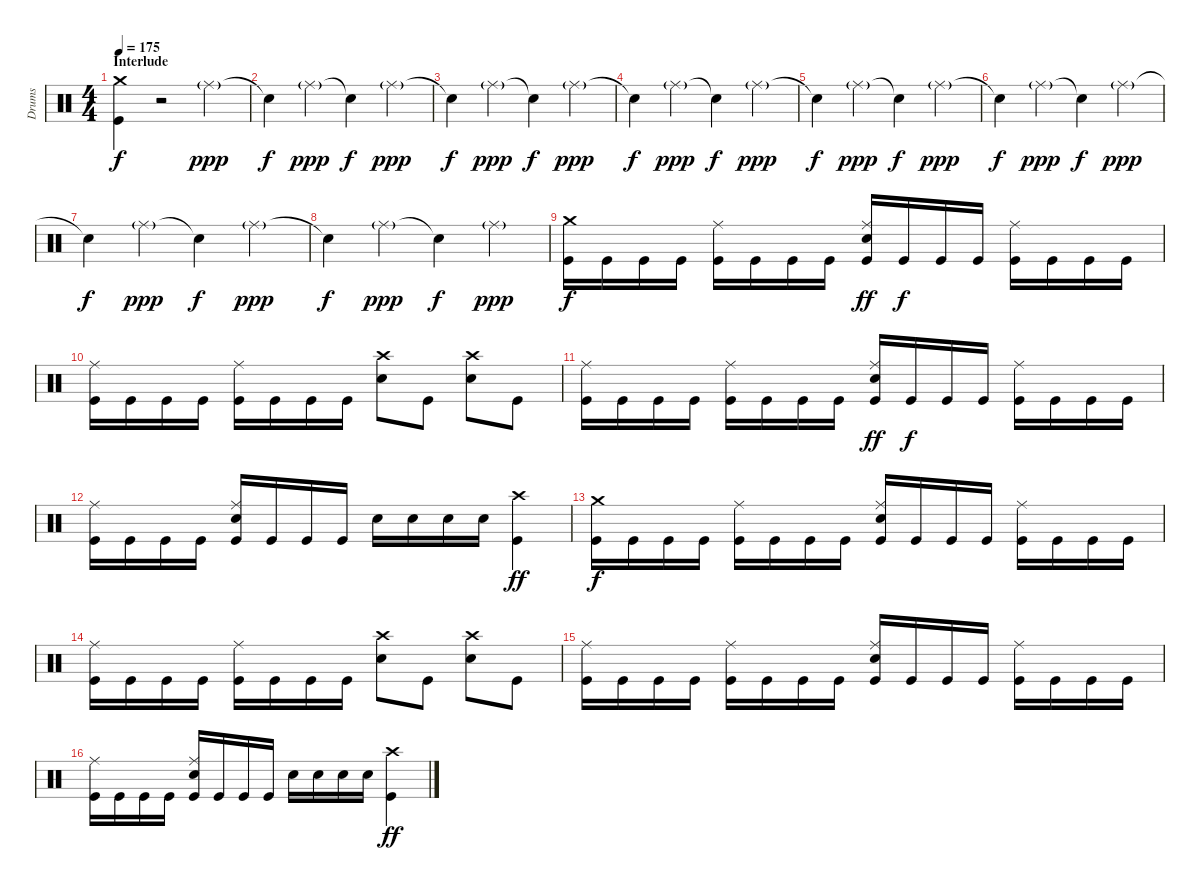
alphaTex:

\track ("Drums" "Drums") {instrument percussion}
\staff {score}
\articulation defaults
\ts (4 4)
\section ("" "Interlude")
\tempo 175
\clef neutral
\ks c
("Crash medium (hit)" "Kick (hit)").4{dy f} r.2 "Ride (middle)"{g}.4{dy ppp} |
"Snare (hit)"{t}.4{dy f} "Ride (middle)"{g}.4{dy ppp} "Snare (hit)"{t}.4{dy f} "Ride (middle)"{g}.4{dy ppp} |
"Snare (hit)"{t}.4{dy f} "Ride (middle)"{g}.4{dy ppp} "Snare (hit)"{t}.4{dy f} "Ride (middle)"{g}.4{dy ppp} |
"Snare (hit)"{t}.4{dy f} "Ride (middle)"{g}.4{dy ppp} "Snare (hit)"{t}.4{dy f} "Ride (middle)"{g}.4{dy ppp} |
"Snare (hit)"{t}.4{dy f} "Ride (middle)"{g}.4{dy ppp} "Snare (hit)"{t}.4{dy f} "Ride (middle)"{g}.4{dy ppp} |
"Snare (hit)"{t}.4{dy f} "Ride (middle)"{g}.4{dy ppp} "Snare (hit)"{t}.4{dy f} "Ride (middle)"{g}.4{dy ppp} |
"Snare (hit)"{t}.4{dy f} "Ride (middle)"{g}.4{dy ppp} "Snare (hit)"{t}.4{dy f} "Ride (middle)"{g}.4{dy ppp} |
"Snare (hit)"{t}.4{dy f} "Ride (middle)"{g}.4{dy ppp} "Snare (hit)"{t}.4{dy f} "Ride (middle)"{g}.4{dy ppp} |
("Crash medium (hit)" "Kick (hit)").16{dy f} "Kick (hit)".16 "Kick (hit)".16 "Kick (hit)".16 ("Ride (middle)" "Kick (hit)").16 "Kick (hit)".16 "Kick (hit)".16 "Kick (hit)".16 ("Ride (middle)" "Snare (hit) 2" "Kick (hit)").16{dy ff} "Kick (hit)".16{dy f} "Kick (hit)".16 "Kick (hit)".16 ("Ride (middle)" "Kick (hit)").16 "Kick (hit)".16 "Kick (hit)".16 "Kick (hit)".16 |
("Ride (middle)" "Kick (hit)").16 "Kick (hit)".16 "Kick (hit)".16 "Kick (hit)".16 ("Ride (middle)" "Kick (hit)").16 "Kick (hit)".16 "Kick (hit)".16 "Kick (hit)".16 ("Crash high (hit)" "Snare (hit) 2").8 "Kick (hit)".8 ("Crash high (hit)" "Snare (hit) 2").8 "Kick (hit)".8 |
("Ride (middle)" "Kick (hit)").16 "Kick (hit)".16 "Kick (hit)".16 "Kick (hit)".16 ("Ride (middle)" "Kick (hit)").16 "Kick (hit)".16 "Kick (hit)".16 "Kick (hit)".16 ("Ride (middle)" "Snare (hit) 2" "Kick (hit)").16{dy ff} "Kick (hit)".16{dy f} "Kick (hit)".16 "Kick (hit)".16 ("Ride (middle)" "Kick (hit)").16 "Kick (hit)".16 "Kick (hit)".16 "Kick (hit)".16 |
("Ride (middle)" "Kick (hit)").16 "Kick (hit)".16 "Kick (hit)".16 "Kick (hit)".16 ("Ride (middle)" "Snare (hit) 2" "Kick (hit)").16 "Kick (hit)".16 "Kick (hit)".16 "Kick (hit)".16 "Snare (hit) 2".16 "Snare (hit) 2".16 "Snare (hit) 2".16 "Snare (hit) 2".16 ("Crash high (hit)" "Kick (hit)").4{dy ff} |
("Crash medium (hit)" "Kick (hit)").16{dy f} "Kick (hit)".16 "Kick (hit)".16 "Kick (hit)".16 ("Ride (middle)" "Kick (hit)").16 "Kick (hit)".16 "Kick (hit)".16 "Kick (hit)".16 ("Ride (middle)" "Snare (hit) 2" "Kick (hit)").16 "Kick (hit)".16 "Kick (hit)".16 "Kick (hit)".16 ("Ride (middle)" "Kick (hit)").16 "Kick (hit)".16 "Kick (hit)".16 "Kick (hit)".16 |
("Ride (middle)" "Kick (hit)").16 "Kick (hit)".16 "Kick (hit)".16 "Kick (hit)".16 ("Ride (middle)" "Kick (hit)").16 "Kick (hit)".16 "Kick (hit)".16 "Kick (hit)".16 ("Crash high (hit)" "Snare (hit) 2").8 "Kick (hit)".8 ("Crash high (hit)" "Snare (hit) 2").8 "Kick (hit)".8 |
("Ride (middle)" "Kick (hit)").16 "Kick (hit)".16 "Kick (hit)".16 "Kick (hit)".16 ("Ride (middle)" "Kick (hit)").16 "Kick (hit)".16 "Kick (hit)".16 "Kick (hit)".16 ("Ride (middle)" "Snare (hit) 2" "Kick (hit)").16 "Kick (hit)".16 "Kick (hit)".16 "Kick (hit)".16 ("Ride (middle)" "Kick (hit)").16 "Kick (hit)".16 "Kick (hit)".16 "Kick (hit)".16 |
("Ride (middle)" "Kick (hit)").16 "Kick (hit)".16 "Kick (hit)".16 "Kick (hit)".16 ("Ride (middle)" "Snare (hit) 2" "Kick (hit)").16 "Kick (hit)".16 "Kick (hit)".16 "Kick (hit)".16 "Snare (hit) 2".16 "Snare (hit) 2".16 "Snare (hit) 2".16 "Snare (hit) 2".16 ("Crash high (hit)" "Kick (hit)").4{dy ff}
